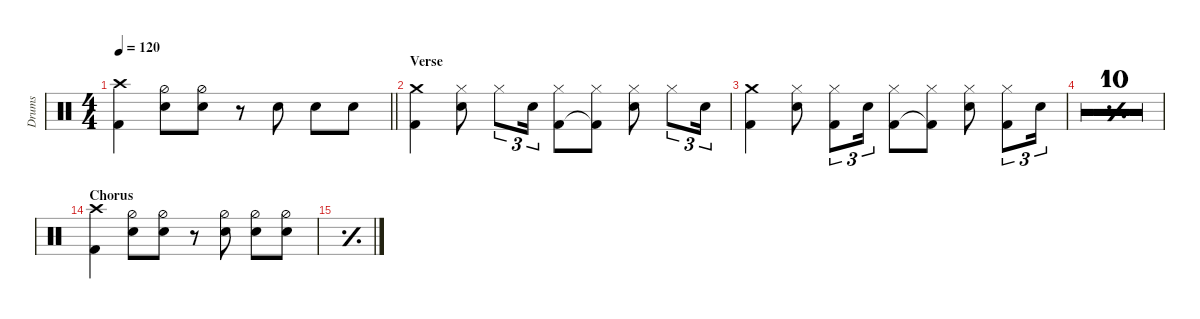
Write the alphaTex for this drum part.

\defaultSystemsLayout 4
\hideDynamics
\bracketExtendMode nobrackets
\otherSystemsTrackNameOrientation horizontal
\track ("Drums" "Drums") {defaultSystemsLayout 8 multiBarRest instrument percussion}
\staff {score}
\articulation defaults
\ts (4 4)
\tempo 120
\clef neutral
\barLineRight lightlight
\ks c
("Crash high (hit)" "Kick (hit) 2").4{dy mf beam Down} ("Snare (hit) 2" "Hi-Hat (half)").8{beam Down} ("Snare (hit) 2" "Hi-Hat (half)").8{beam Down} r.8{beam Down} "Snare (hit) 2".8{beam Down} "Snare (hit) 2".8{beam Down} "Snare (hit) 2".8{beam Down} |
\section ("" "Verse")
("Kick (hit) 2" "Crash medium (hit)").4{beam Down} ("Snare (hit) 2" "Hi-Hat (closed)").8{beam Down} "Hi-Hat (closed)".8{tu (3 2) beam Down} "Snare (hit) 2".16{tu (3 2) beam Down} ("Kick (hit) 2" "Hi-Hat (closed)").8{beam Down} ("Kick (hit) 2"{t} "Hi-Hat (closed)").8{beam Down} ("Snare (hit) 2" "Hi-Hat (closed)").8{beam Down} "Hi-Hat (closed)".8{tu (3 2) beam Down} "Snare (hit) 2".16{tu (3 2) beam Down} |
("Kick (hit) 2" "Crash medium (hit)").4{beam Down} ("Snare (hit) 2" "Hi-Hat (closed)").8{beam Down} ("Hi-Hat (closed)" "Kick (hit) 2").8{tu (3 2) beam Down} "Snare (hit) 2".16{tu (3 2) beam Down} ("Kick (hit) 2" "Hi-Hat (closed)").8{beam Down} ("Kick (hit) 2"{t} "Hi-Hat (closed)").8{beam Down} ("Snare (hit) 2" "Hi-Hat (closed)").8{beam Down} ("Hi-Hat (closed)" "Kick (hit) 2").8{tu (3 2) beam Down} "Snare (hit) 2".16{tu (3 2) beam Down} |
\simile simple
|
|
|
|
|
|
|
|
|
\barLineRight lightlight
|
\section ("" "Chorus")
\simile none
("Crash high (hit)" "Kick (hit) 2").4{beam Down} ("Snare (hit) 2" "Hi-Hat (half)").8{beam Down} ("Snare (hit) 2" "Hi-Hat (half)").8{beam Down} r.8{beam Down} ("Snare (hit) 2" "Hi-Hat (half)").8{beam Down} ("Snare (hit) 2" "Hi-Hat (half)").8{beam Down} ("Snare (hit) 2" "Hi-Hat (half)").8{beam Down} |
\simile simple
